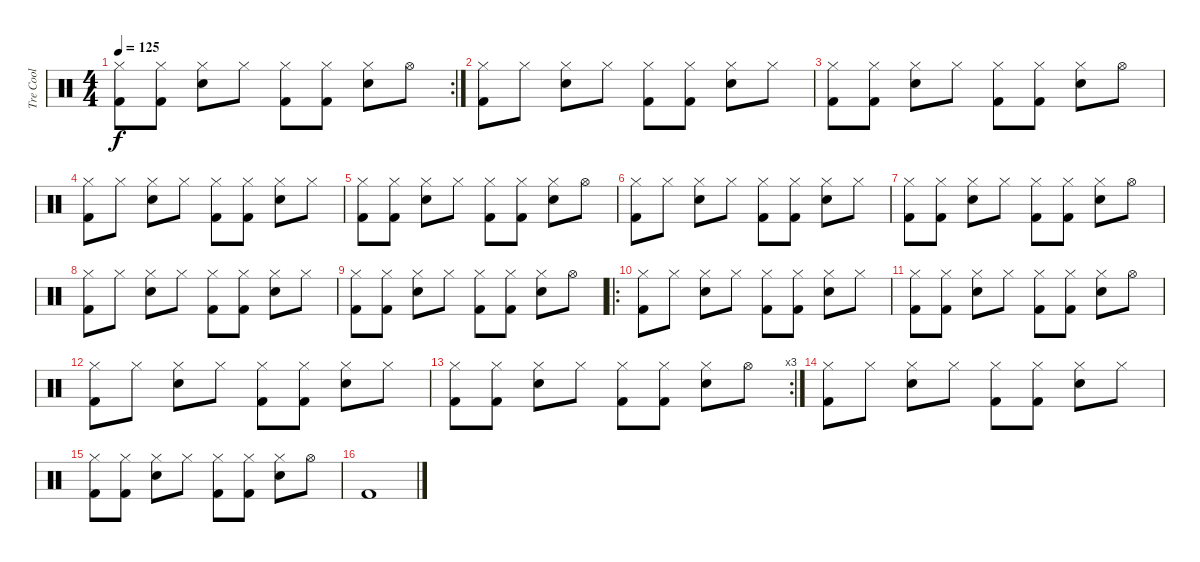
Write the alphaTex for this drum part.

\track ("Tre Cool" "Tre Cool") {instrument percussion}
\staff {score}
\articulation defaults
\rc 2
\ts (4 4)
\tempo 125
\clef neutral
\ks c
("Hi-Hat (closed)" "Kick (hit) 2").8{dy f} ("Hi-Hat (closed)" "Kick (hit) 2").8 ("Hi-Hat (closed)" "Electric Snare (hit)").8 "Hi-Hat (closed)".8 ("Hi-Hat (closed)" "Kick (hit) 2").8 ("Hi-Hat (closed)" "Kick (hit) 2").8 ("Hi-Hat (closed)" "Electric Snare (hit)").8 "Hi-Hat (open)".8 |
("Hi-Hat (closed)" "Kick (hit) 2").8 "Hi-Hat (closed)".8 ("Hi-Hat (closed)" "Electric Snare (hit)").8 "Hi-Hat (closed)".8 ("Hi-Hat (closed)" "Kick (hit) 2").8 ("Hi-Hat (closed)" "Kick (hit) 2").8 ("Hi-Hat (closed)" "Electric Snare (hit)").8 "Hi-Hat (closed)".8 |
("Hi-Hat (closed)" "Kick (hit) 2").8 ("Hi-Hat (closed)" "Kick (hit) 2").8 ("Hi-Hat (closed)" "Electric Snare (hit)").8 "Hi-Hat (closed)".8 ("Hi-Hat (closed)" "Kick (hit) 2").8 ("Hi-Hat (closed)" "Kick (hit) 2").8 ("Hi-Hat (closed)" "Electric Snare (hit)").8 "Hi-Hat (open)".8 |
("Hi-Hat (closed)" "Kick (hit) 2").8 "Hi-Hat (closed)".8 ("Hi-Hat (closed)" "Electric Snare (hit)").8 "Hi-Hat (closed)".8 ("Hi-Hat (closed)" "Kick (hit) 2").8 ("Hi-Hat (closed)" "Kick (hit) 2").8 ("Hi-Hat (closed)" "Electric Snare (hit)").8 "Hi-Hat (closed)".8 |
("Hi-Hat (closed)" "Kick (hit) 2").8 ("Hi-Hat (closed)" "Kick (hit) 2").8 ("Hi-Hat (closed)" "Electric Snare (hit)").8 "Hi-Hat (closed)".8 ("Hi-Hat (closed)" "Kick (hit) 2").8 ("Hi-Hat (closed)" "Kick (hit) 2").8 ("Hi-Hat (closed)" "Electric Snare (hit)").8 "Hi-Hat (open)".8 |
("Hi-Hat (closed)" "Kick (hit) 2").8 "Hi-Hat (closed)".8 ("Hi-Hat (closed)" "Electric Snare (hit)").8 "Hi-Hat (closed)".8 ("Hi-Hat (closed)" "Kick (hit) 2").8 ("Hi-Hat (closed)" "Kick (hit) 2").8 ("Hi-Hat (closed)" "Electric Snare (hit)").8 "Hi-Hat (closed)".8 |
("Hi-Hat (closed)" "Kick (hit) 2").8 ("Hi-Hat (closed)" "Kick (hit) 2").8 ("Hi-Hat (closed)" "Electric Snare (hit)").8 "Hi-Hat (closed)".8 ("Hi-Hat (closed)" "Kick (hit) 2").8 ("Hi-Hat (closed)" "Kick (hit) 2").8 ("Hi-Hat (closed)" "Electric Snare (hit)").8 "Hi-Hat (open)".8 |
("Hi-Hat (closed)" "Kick (hit) 2").8 "Hi-Hat (closed)".8 ("Hi-Hat (closed)" "Electric Snare (hit)").8 "Hi-Hat (closed)".8 ("Hi-Hat (closed)" "Kick (hit) 2").8 ("Hi-Hat (closed)" "Kick (hit) 2").8 ("Hi-Hat (closed)" "Electric Snare (hit)").8 "Hi-Hat (closed)".8 |
("Hi-Hat (closed)" "Kick (hit) 2").8 ("Hi-Hat (closed)" "Kick (hit) 2").8 ("Hi-Hat (closed)" "Electric Snare (hit)").8 "Hi-Hat (closed)".8 ("Hi-Hat (closed)" "Kick (hit) 2").8 ("Hi-Hat (closed)" "Kick (hit) 2").8 ("Hi-Hat (closed)" "Electric Snare (hit)").8 "Hi-Hat (open)".8 |
\ro
("Hi-Hat (closed)" "Kick (hit) 2").8 "Hi-Hat (closed)".8 ("Hi-Hat (closed)" "Electric Snare (hit)").8 "Hi-Hat (closed)".8 ("Hi-Hat (closed)" "Kick (hit) 2").8 ("Hi-Hat (closed)" "Kick (hit) 2").8 ("Hi-Hat (closed)" "Electric Snare (hit)").8 "Hi-Hat (closed)".8 |
("Hi-Hat (closed)" "Kick (hit) 2").8 ("Hi-Hat (closed)" "Kick (hit) 2").8 ("Hi-Hat (closed)" "Electric Snare (hit)").8 "Hi-Hat (closed)".8 ("Hi-Hat (closed)" "Kick (hit) 2").8 ("Hi-Hat (closed)" "Kick (hit) 2").8 ("Hi-Hat (closed)" "Electric Snare (hit)").8 "Hi-Hat (open)".8 |
("Hi-Hat (closed)" "Kick (hit) 2").8 "Hi-Hat (closed)".8 ("Hi-Hat (closed)" "Electric Snare (hit)").8 "Hi-Hat (closed)".8 ("Hi-Hat (closed)" "Kick (hit) 2").8 ("Hi-Hat (closed)" "Kick (hit) 2").8 ("Hi-Hat (closed)" "Electric Snare (hit)").8 "Hi-Hat (closed)".8 |
\rc 3
("Hi-Hat (closed)" "Kick (hit) 2").8 ("Hi-Hat (closed)" "Kick (hit) 2").8 ("Hi-Hat (closed)" "Electric Snare (hit)").8 "Hi-Hat (closed)".8 ("Hi-Hat (closed)" "Kick (hit) 2").8 ("Hi-Hat (closed)" "Kick (hit) 2").8 ("Hi-Hat (closed)" "Electric Snare (hit)").8 "Hi-Hat (open)".8 |
("Hi-Hat (closed)" "Kick (hit) 2").8 "Hi-Hat (closed)".8 ("Hi-Hat (closed)" "Electric Snare (hit)").8 "Hi-Hat (closed)".8 ("Hi-Hat (closed)" "Kick (hit) 2").8 ("Hi-Hat (closed)" "Kick (hit) 2").8 ("Hi-Hat (closed)" "Electric Snare (hit)").8 "Hi-Hat (closed)".8 |
("Hi-Hat (closed)" "Kick (hit) 2").8 ("Hi-Hat (closed)" "Kick (hit) 2").8 ("Hi-Hat (closed)" "Electric Snare (hit)").8 "Hi-Hat (closed)".8 ("Hi-Hat (closed)" "Kick (hit) 2").8 ("Hi-Hat (closed)" "Kick (hit) 2").8 ("Hi-Hat (closed)" "Electric Snare (hit)").8 "Hi-Hat (open)".8 |
"Kick (hit) 2".1
